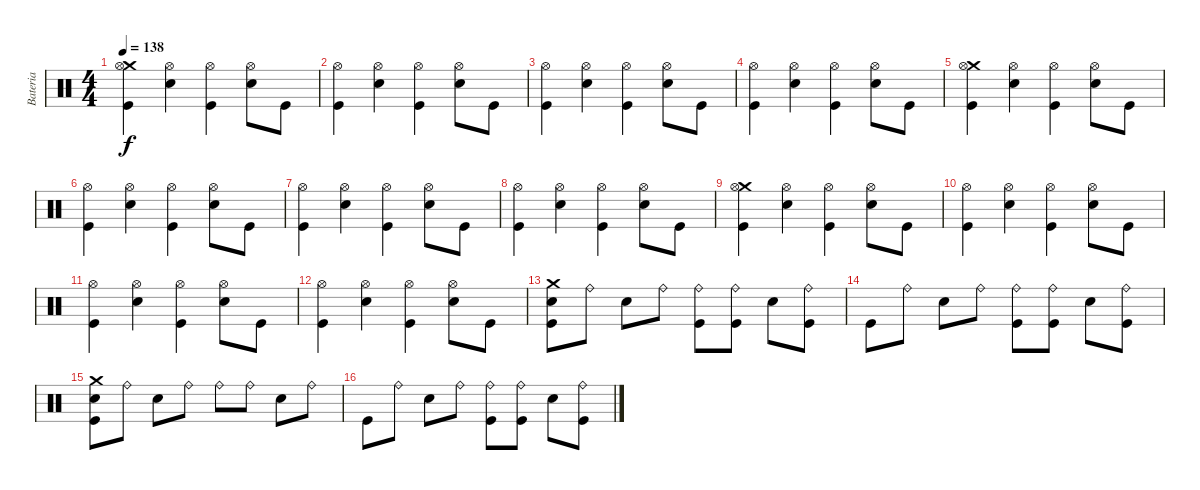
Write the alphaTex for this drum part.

\track ("Bateria" "Bateria") {instrument percussion}
\staff {score}
\articulation defaults
\ts (4 4)
\tempo 138
\clef neutral
\ks c
("Crash medium (hit)" "Hi-Hat (open)" "Kick (hit)").4{dy f} ("Snare (hit) 2" "Hi-Hat (open)").4 ("Hi-Hat (open)" "Kick (hit)").4 ("Snare (hit) 2" "Hi-Hat (open)").8 "Kick (hit)".8 |
("Hi-Hat (open)" "Kick (hit)").4 ("Snare (hit) 2" "Hi-Hat (open)").4 ("Hi-Hat (open)" "Kick (hit)").4 ("Snare (hit) 2" "Hi-Hat (open)").8 "Kick (hit)".8 |
("Hi-Hat (open)" "Kick (hit)").4 ("Snare (hit) 2" "Hi-Hat (open)").4 ("Hi-Hat (open)" "Kick (hit)").4 ("Snare (hit) 2" "Hi-Hat (open)").8 "Kick (hit)".8 |
("Hi-Hat (open)" "Kick (hit)").4 ("Snare (hit) 2" "Hi-Hat (open)").4 ("Hi-Hat (open)" "Kick (hit)").4 ("Snare (hit) 2" "Hi-Hat (open)").8 "Kick (hit)".8 |
("Crash medium (hit)" "Hi-Hat (open)" "Kick (hit)").4 ("Snare (hit) 2" "Hi-Hat (open)").4 ("Hi-Hat (open)" "Kick (hit)").4 ("Snare (hit) 2" "Hi-Hat (open)").8 "Kick (hit)".8 |
("Hi-Hat (open)" "Kick (hit)").4 ("Snare (hit) 2" "Hi-Hat (open)").4 ("Hi-Hat (open)" "Kick (hit)").4 ("Snare (hit) 2" "Hi-Hat (open)").8 "Kick (hit)".8 |
("Hi-Hat (open)" "Kick (hit)").4 ("Snare (hit) 2" "Hi-Hat (open)").4 ("Hi-Hat (open)" "Kick (hit)").4 ("Snare (hit) 2" "Hi-Hat (open)").8 "Kick (hit)".8 |
("Hi-Hat (open)" "Kick (hit)").4 ("Snare (hit) 2" "Hi-Hat (open)").4 ("Hi-Hat (open)" "Kick (hit)").4 ("Snare (hit) 2" "Hi-Hat (open)").8 "Kick (hit)".8 |
("Crash medium (hit)" "Hi-Hat (open)" "Kick (hit)").4 ("Snare (hit) 2" "Hi-Hat (open)").4 ("Hi-Hat (open)" "Kick (hit)").4 ("Snare (hit) 2" "Hi-Hat (open)").8 "Kick (hit)".8 |
("Hi-Hat (open)" "Kick (hit)").4 ("Snare (hit) 2" "Hi-Hat (open)").4 ("Hi-Hat (open)" "Kick (hit)").4 ("Snare (hit) 2" "Hi-Hat (open)").8 "Kick (hit)".8 |
("Hi-Hat (open)" "Kick (hit)").4 ("Snare (hit) 2" "Hi-Hat (open)").4 ("Hi-Hat (open)" "Kick (hit)").4 ("Snare (hit) 2" "Hi-Hat (open)").8 "Kick (hit)".8 |
("Hi-Hat (open)" "Kick (hit)").4 ("Snare (hit) 2" "Hi-Hat (open)").4 ("Hi-Hat (open)" "Kick (hit)").4 ("Snare (hit) 2" "Hi-Hat (open)").8 "Kick (hit)".8 |
("Crash medium (hit)" "Kick (hit)" "Snare (hit) 2").8 "Ride (bell)".8 "Snare (hit) 2".8 "Ride (bell)".8 ("Kick (hit)" "Ride (bell)").8 ("Kick (hit)" "Ride (bell)").8 "Snare (hit) 2".8 ("Kick (hit)" "Ride (bell)").8 |
"Kick (hit)".8 "Ride (bell)".8 "Snare (hit) 2".8 "Ride (bell)".8 ("Kick (hit)" "Ride (bell)").8 ("Kick (hit)" "Ride (bell)").8 "Snare (hit) 2".8 ("Kick (hit)" "Ride (bell)").8 |
("Crash medium (hit)" "Kick (hit)" "Snare (hit) 2").8 "Ride (bell)".8 "Snare (hit) 2".8 "Ride (bell)".8 "Ride (bell)".8 "Ride (bell)".8 "Snare (hit) 2".8 "Ride (bell)".8 |
"Kick (hit)".8 "Ride (bell)".8 "Snare (hit) 2".8 "Ride (bell)".8 ("Kick (hit)" "Ride (bell)").8 ("Kick (hit)" "Ride (bell)").8 "Snare (hit) 2".8 ("Kick (hit)" "Ride (bell)").8
